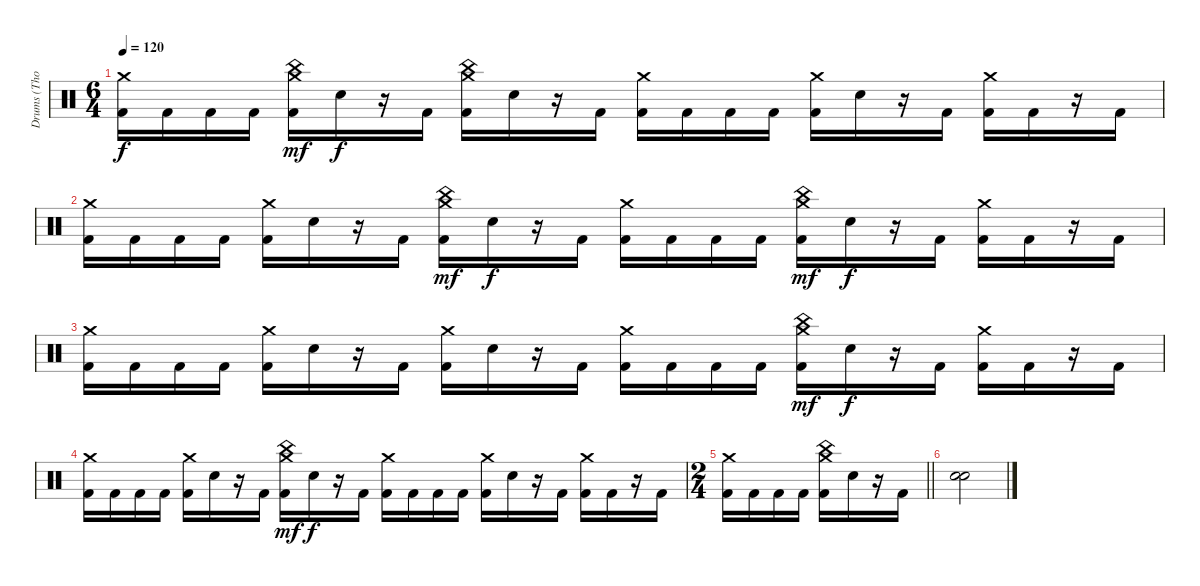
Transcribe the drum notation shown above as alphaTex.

\track ("Drums (Thomas Haake)" "Drums (Tho") {instrument percussion}
\staff {score}
\articulation defaults
\ts (6 4)
\tempo 120
\clef neutral
\ks c
("Crash medium (hit)" "Kick (hit) 2").16{dy f} "Kick (hit) 2".16 "Kick (hit) 2".16 "Kick (hit) 2".16 ("Crash medium (hit)" "China (hit)" "Kick (hit) 2").16{dy mf} "Electric Snare (hit)".16{dy f} r.16 "Kick (hit) 2".16 ("Crash medium (hit)" "China (hit)" "Kick (hit) 2").16 "Electric Snare (hit)".16 r.16 "Kick (hit) 2".16 ("Crash medium (hit)" "Kick (hit) 2").16 "Kick (hit) 2".16 "Kick (hit) 2".16 "Kick (hit) 2".16 ("Crash medium (hit)" "Kick (hit) 2").16 "Electric Snare (hit)".16 r.16 "Kick (hit) 2".16 ("Crash medium (hit)" "Kick (hit) 2").16 "Kick (hit) 2".16 r.16 "Kick (hit) 2".16 |
("Crash medium (hit)" "Kick (hit) 2").16 "Kick (hit) 2".16 "Kick (hit) 2".16 "Kick (hit) 2".16 ("Crash medium (hit)" "Kick (hit) 2").16 "Electric Snare (hit)".16 r.16 "Kick (hit) 2".16 ("Crash medium (hit)" "China (hit)" "Kick (hit) 2").16{dy mf} "Electric Snare (hit)".16{dy f} r.16 "Kick (hit) 2".16 ("Crash medium (hit)" "Kick (hit) 2").16 "Kick (hit) 2".16 "Kick (hit) 2".16 "Kick (hit) 2".16 ("Crash medium (hit)" "China (hit)" "Kick (hit) 2").16{dy mf} "Electric Snare (hit)".16{dy f} r.16 "Kick (hit) 2".16 ("Crash medium (hit)" "Kick (hit) 2").16 "Kick (hit) 2".16 r.16 "Kick (hit) 2".16 |
("Crash medium (hit)" "Kick (hit) 2").16 "Kick (hit) 2".16 "Kick (hit) 2".16 "Kick (hit) 2".16 ("Crash medium (hit)" "Kick (hit) 2").16 "Electric Snare (hit)".16 r.16 "Kick (hit) 2".16 ("Crash medium (hit)" "Kick (hit) 2").16 "Electric Snare (hit)".16 r.16 "Kick (hit) 2".16 ("Crash medium (hit)" "Kick (hit) 2").16 "Kick (hit) 2".16 "Kick (hit) 2".16 "Kick (hit) 2".16 ("Crash medium (hit)" "China (hit)" "Kick (hit) 2").16{dy mf} "Electric Snare (hit)".16{dy f} r.16 "Kick (hit) 2".16 ("Crash medium (hit)" "Kick (hit) 2").16 "Kick (hit) 2".16 r.16 "Kick (hit) 2".16 |
("Crash medium (hit)" "Kick (hit) 2").16 "Kick (hit) 2".16 "Kick (hit) 2".16 "Kick (hit) 2".16 ("Crash medium (hit)" "Kick (hit) 2").16 "Electric Snare (hit)".16 r.16 "Kick (hit) 2".16 ("Crash medium (hit)" "China (hit)" "Kick (hit) 2").16{dy mf} "Electric Snare (hit)".16{dy f} r.16 "Kick (hit) 2".16 ("Crash medium (hit)" "Kick (hit) 2").16 "Kick (hit) 2".16 "Kick (hit) 2".16 "Kick (hit) 2".16 ("Crash medium (hit)" "Kick (hit) 2").16 "Electric Snare (hit)".16 r.16 "Kick (hit) 2".16 ("Crash medium (hit)" "Kick (hit) 2").16 "Kick (hit) 2".16 r.16 "Kick (hit) 2".16 |
\ts (2 4)
\barLineRight lightlight
("Crash medium (hit)" "Kick (hit) 2").16 "Kick (hit) 2".16 "Kick (hit) 2".16 "Kick (hit) 2".16 ("Crash medium (hit)" "China (hit)" "Kick (hit) 2").16 "Electric Snare (hit)".16 r.16 "Kick (hit) 2".16 |
("Electric Snare (hit)" "Electric Snare (hit)").2{bd 30}
